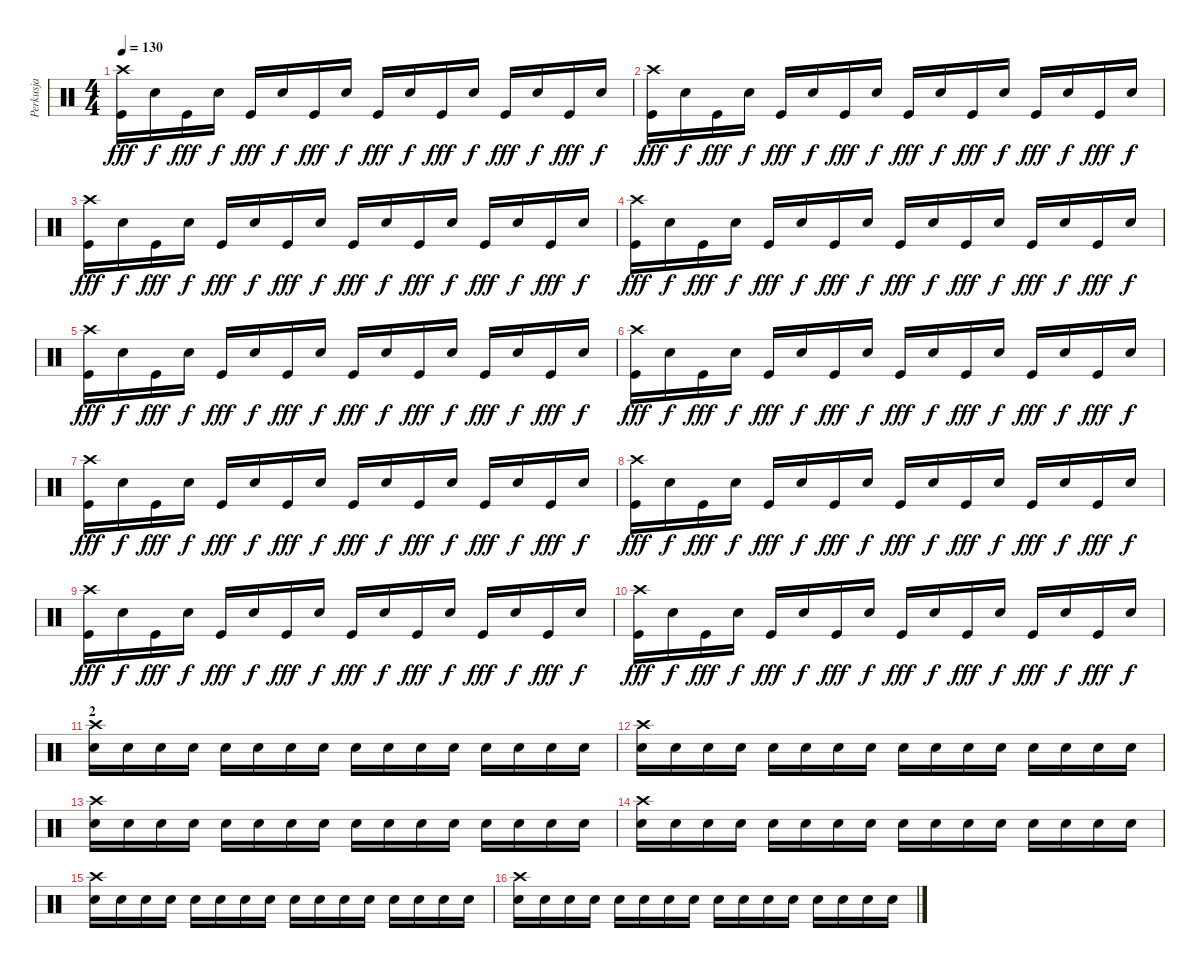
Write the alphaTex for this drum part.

\track ("Perkusja" "Perkusja") {instrument percussion}
\staff {score}
\articulation defaults
\ts (4 4)
\tempo 130
\clef neutral
\ks c
("Crash high (hit)" "Kick (hit)").16{dy fff} "Snare (hit) 2".16{dy f} "Kick (hit)".16{dy fff} "Snare (hit) 2".16{dy f} "Kick (hit)".16{dy fff} "Snare (hit) 2".16{dy f} "Kick (hit)".16{dy fff} "Snare (hit) 2".16{dy f} "Kick (hit)".16{dy fff} "Snare (hit) 2".16{dy f} "Kick (hit)".16{dy fff} "Snare (hit) 2".16{dy f} "Kick (hit)".16{dy fff} "Snare (hit) 2".16{dy f} "Kick (hit)".16{dy fff} "Snare (hit) 2".16{dy f} |
("Crash high (hit)" "Kick (hit)").16{dy fff} "Snare (hit) 2".16{dy f} "Kick (hit)".16{dy fff} "Snare (hit) 2".16{dy f} "Kick (hit)".16{dy fff} "Snare (hit) 2".16{dy f} "Kick (hit)".16{dy fff} "Snare (hit) 2".16{dy f} "Kick (hit)".16{dy fff} "Snare (hit) 2".16{dy f} "Kick (hit)".16{dy fff} "Snare (hit) 2".16{dy f} "Kick (hit)".16{dy fff} "Snare (hit) 2".16{dy f} "Kick (hit)".16{dy fff} "Snare (hit) 2".16{dy f} |
("Crash high (hit)" "Kick (hit)").16{dy fff} "Snare (hit) 2".16{dy f} "Kick (hit)".16{dy fff} "Snare (hit) 2".16{dy f} "Kick (hit)".16{dy fff} "Snare (hit) 2".16{dy f} "Kick (hit)".16{dy fff} "Snare (hit) 2".16{dy f} "Kick (hit)".16{dy fff} "Snare (hit) 2".16{dy f} "Kick (hit)".16{dy fff} "Snare (hit) 2".16{dy f} "Kick (hit)".16{dy fff} "Snare (hit) 2".16{dy f} "Kick (hit)".16{dy fff} "Snare (hit) 2".16{dy f} |
("Crash high (hit)" "Kick (hit)").16{dy fff} "Snare (hit) 2".16{dy f} "Kick (hit)".16{dy fff} "Snare (hit) 2".16{dy f} "Kick (hit)".16{dy fff} "Snare (hit) 2".16{dy f} "Kick (hit)".16{dy fff} "Snare (hit) 2".16{dy f} "Kick (hit)".16{dy fff} "Snare (hit) 2".16{dy f} "Kick (hit)".16{dy fff} "Snare (hit) 2".16{dy f} "Kick (hit)".16{dy fff} "Snare (hit) 2".16{dy f} "Kick (hit)".16{dy fff} "Snare (hit) 2".16{dy f} |
("Crash high (hit)" "Kick (hit)").16{dy fff} "Snare (hit) 2".16{dy f} "Kick (hit)".16{dy fff} "Snare (hit) 2".16{dy f} "Kick (hit)".16{dy fff} "Snare (hit) 2".16{dy f} "Kick (hit)".16{dy fff} "Snare (hit) 2".16{dy f} "Kick (hit)".16{dy fff} "Snare (hit) 2".16{dy f} "Kick (hit)".16{dy fff} "Snare (hit) 2".16{dy f} "Kick (hit)".16{dy fff} "Snare (hit) 2".16{dy f} "Kick (hit)".16{dy fff} "Snare (hit) 2".16{dy f} |
("Crash high (hit)" "Kick (hit)").16{dy fff} "Snare (hit) 2".16{dy f} "Kick (hit)".16{dy fff} "Snare (hit) 2".16{dy f} "Kick (hit)".16{dy fff} "Snare (hit) 2".16{dy f} "Kick (hit)".16{dy fff} "Snare (hit) 2".16{dy f} "Kick (hit)".16{dy fff} "Snare (hit) 2".16{dy f} "Kick (hit)".16{dy fff} "Snare (hit) 2".16{dy f} "Kick (hit)".16{dy fff} "Snare (hit) 2".16{dy f} "Kick (hit)".16{dy fff} "Snare (hit) 2".16{dy f} |
("Crash high (hit)" "Kick (hit)").16{dy fff} "Snare (hit) 2".16{dy f} "Kick (hit)".16{dy fff} "Snare (hit) 2".16{dy f} "Kick (hit)".16{dy fff} "Snare (hit) 2".16{dy f} "Kick (hit)".16{dy fff} "Snare (hit) 2".16{dy f} "Kick (hit)".16{dy fff} "Snare (hit) 2".16{dy f} "Kick (hit)".16{dy fff} "Snare (hit) 2".16{dy f} "Kick (hit)".16{dy fff} "Snare (hit) 2".16{dy f} "Kick (hit)".16{dy fff} "Snare (hit) 2".16{dy f} |
("Crash high (hit)" "Kick (hit)").16{dy fff} "Snare (hit) 2".16{dy f} "Kick (hit)".16{dy fff} "Snare (hit) 2".16{dy f} "Kick (hit)".16{dy fff} "Snare (hit) 2".16{dy f} "Kick (hit)".16{dy fff} "Snare (hit) 2".16{dy f} "Kick (hit)".16{dy fff} "Snare (hit) 2".16{dy f} "Kick (hit)".16{dy fff} "Snare (hit) 2".16{dy f} "Kick (hit)".16{dy fff} "Snare (hit) 2".16{dy f} "Kick (hit)".16{dy fff} "Snare (hit) 2".16{dy f} |
("Crash high (hit)" "Kick (hit)").16{dy fff} "Snare (hit) 2".16{dy f} "Kick (hit)".16{dy fff} "Snare (hit) 2".16{dy f} "Kick (hit)".16{dy fff} "Snare (hit) 2".16{dy f} "Kick (hit)".16{dy fff} "Snare (hit) 2".16{dy f} "Kick (hit)".16{dy fff} "Snare (hit) 2".16{dy f} "Kick (hit)".16{dy fff} "Snare (hit) 2".16{dy f} "Kick (hit)".16{dy fff} "Snare (hit) 2".16{dy f} "Kick (hit)".16{dy fff} "Snare (hit) 2".16{dy f} |
("Crash high (hit)" "Kick (hit)").16{dy fff} "Snare (hit) 2".16{dy f} "Kick (hit)".16{dy fff} "Snare (hit) 2".16{dy f} "Kick (hit)".16{dy fff} "Snare (hit) 2".16{dy f} "Kick (hit)".16{dy fff} "Snare (hit) 2".16{dy f} "Kick (hit)".16{dy fff} "Snare (hit) 2".16{dy f} "Kick (hit)".16{dy fff} "Snare (hit) 2".16{dy f} "Kick (hit)".16{dy fff} "Snare (hit) 2".16{dy f} "Kick (hit)".16{dy fff} "Snare (hit) 2".16{dy f} |
\section ("" "2")
("Crash high (hit)" "Snare (hit) 2").16 "Snare (hit) 2".16 "Snare (hit) 2".16 "Snare (hit) 2".16 "Snare (hit) 2".16 "Snare (hit) 2".16 "Snare (hit) 2".16 "Snare (hit) 2".16 "Snare (hit) 2".16 "Snare (hit) 2".16 "Snare (hit) 2".16 "Snare (hit) 2".16 "Snare (hit) 2".16 "Snare (hit) 2".16 "Snare (hit) 2".16 "Snare (hit) 2".16 |
("Crash high (hit)" "Snare (hit) 2").16 "Snare (hit) 2".16 "Snare (hit) 2".16 "Snare (hit) 2".16 "Snare (hit) 2".16 "Snare (hit) 2".16 "Snare (hit) 2".16 "Snare (hit) 2".16 "Snare (hit) 2".16 "Snare (hit) 2".16 "Snare (hit) 2".16 "Snare (hit) 2".16 "Snare (hit) 2".16 "Snare (hit) 2".16 "Snare (hit) 2".16 "Snare (hit) 2".16 |
("Crash high (hit)" "Snare (hit) 2").16 "Snare (hit) 2".16 "Snare (hit) 2".16 "Snare (hit) 2".16 "Snare (hit) 2".16 "Snare (hit) 2".16 "Snare (hit) 2".16 "Snare (hit) 2".16 "Snare (hit) 2".16 "Snare (hit) 2".16 "Snare (hit) 2".16 "Snare (hit) 2".16 "Snare (hit) 2".16 "Snare (hit) 2".16 "Snare (hit) 2".16 "Snare (hit) 2".16 |
("Crash high (hit)" "Snare (hit) 2").16 "Snare (hit) 2".16 "Snare (hit) 2".16 "Snare (hit) 2".16 "Snare (hit) 2".16 "Snare (hit) 2".16 "Snare (hit) 2".16 "Snare (hit) 2".16 "Snare (hit) 2".16 "Snare (hit) 2".16 "Snare (hit) 2".16 "Snare (hit) 2".16 "Snare (hit) 2".16 "Snare (hit) 2".16 "Snare (hit) 2".16 "Snare (hit) 2".16 |
("Crash high (hit)" "Snare (hit) 2").16 "Snare (hit) 2".16 "Snare (hit) 2".16 "Snare (hit) 2".16 "Snare (hit) 2".16 "Snare (hit) 2".16 "Snare (hit) 2".16 "Snare (hit) 2".16 "Snare (hit) 2".16 "Snare (hit) 2".16 "Snare (hit) 2".16 "Snare (hit) 2".16 "Snare (hit) 2".16 "Snare (hit) 2".16 "Snare (hit) 2".16 "Snare (hit) 2".16 |
("Crash high (hit)" "Snare (hit) 2").16 "Snare (hit) 2".16 "Snare (hit) 2".16 "Snare (hit) 2".16 "Snare (hit) 2".16 "Snare (hit) 2".16 "Snare (hit) 2".16 "Snare (hit) 2".16 "Snare (hit) 2".16 "Snare (hit) 2".16 "Snare (hit) 2".16 "Snare (hit) 2".16 "Snare (hit) 2".16 "Snare (hit) 2".16 "Snare (hit) 2".16 "Snare (hit) 2".16
